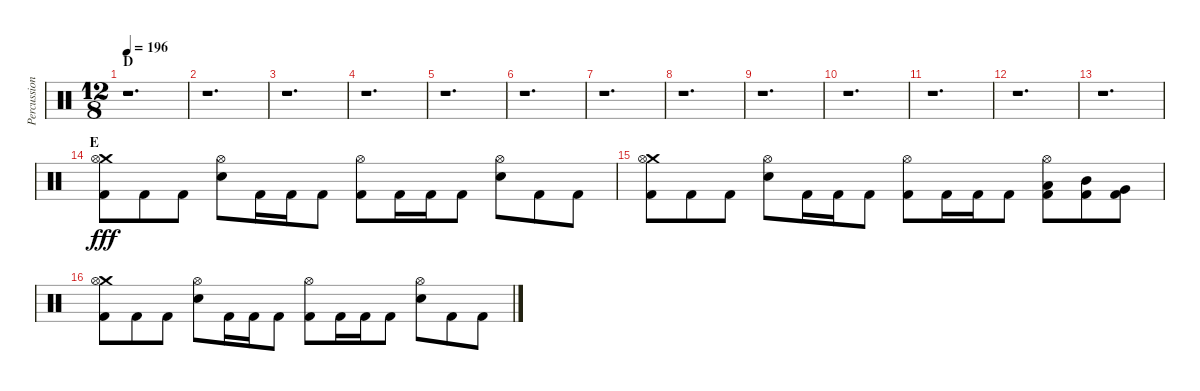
\track ("Percussion" "Percussion") {instrument percussion}
\staff {score}
\articulation defaults
\ts (12 8)
\section ("" "D")
\tempo 196
\clef neutral
\ks c
r.1{d dy fff} |
r.1{d} |
r.1{d} |
r.1{d} |
r.1{d} |
r.1{d} |
r.1{d} |
r.1{d} |
r.1{d} |
r.1{d} |
r.1{d} |
r.1{d} |
r.1{d} |
\section ("" "E")
("Crash medium (hit)" "Hi-Hat (open)" "Kick (hit) 2").8 "Kick (hit) 2".8 "Kick (hit) 2".8 ("Hi-Hat (open)" "Snare (hit) 2").8 "Kick (hit) 2".16 "Kick (hit) 2".16 "Kick (hit) 2".8 ("Hi-Hat (open)" "Kick (hit) 2").8 "Kick (hit) 2".16 "Kick (hit) 2".16 "Kick (hit) 2".8 ("Hi-Hat (open)" "Snare (hit) 2").8 "Kick (hit) 2".8 "Kick (hit) 2".8 |
("Crash medium (hit)" "Hi-Hat (open)" "Kick (hit) 2").8 "Kick (hit) 2".8 "Kick (hit) 2".8 ("Hi-Hat (open)" "Snare (hit) 2").8 "Kick (hit) 2".16 "Kick (hit) 2".16 "Kick (hit) 2".8 ("Hi-Hat (open)" "Kick (hit) 2").8 "Kick (hit) 2".16 "Kick (hit) 2".16 "Kick (hit) 2".8 ("Hi-Hat (open)" "Low Tom (hit)" "Kick (hit) 2").8 ("Mid Tom (hit)" "Kick (hit) 2").8 ("Very Low Tom (hit)" "Kick (hit) 2").8 |
("Crash medium (hit)" "Hi-Hat (open)" "Kick (hit) 2").8 "Kick (hit) 2".8 "Kick (hit) 2".8 ("Hi-Hat (open)" "Snare (hit) 2").8 "Kick (hit) 2".16 "Kick (hit) 2".16 "Kick (hit) 2".8 ("Hi-Hat (open)" "Kick (hit) 2").8 "Kick (hit) 2".16 "Kick (hit) 2".16 "Kick (hit) 2".8 ("Hi-Hat (open)" "Snare (hit) 2").8 "Kick (hit) 2".8 "Kick (hit) 2".8
